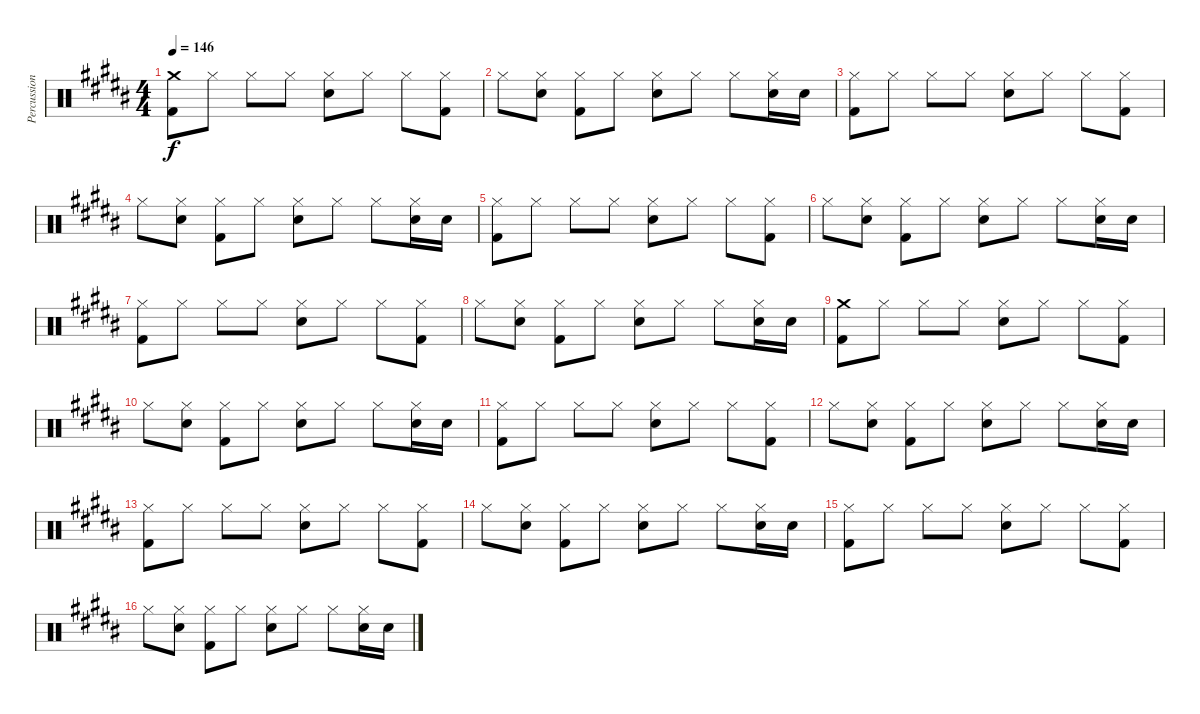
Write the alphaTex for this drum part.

\track ("Percussion" "Percussion") {instrument percussion}
\staff {score}
\articulation defaults
\ts (4 4)
\tempo 146
\clef neutral
\ks b
("Crash medium (hit)" "Kick (hit) 2").8{dy f} "Hi-Hat (closed)".8 "Hi-Hat (closed)".8 "Hi-Hat (closed)".8 ("Hi-Hat (closed)" "Snare (hit) 2").8 "Hi-Hat (closed)".8 "Hi-Hat (closed)".8 ("Hi-Hat (closed)" "Kick (hit) 2").8 |
"Hi-Hat (closed)".8 ("Hi-Hat (closed)" "Snare (hit) 2").8 ("Hi-Hat (closed)" "Kick (hit) 2").8 "Hi-Hat (closed)".8 ("Hi-Hat (closed)" "Snare (hit) 2").8 "Hi-Hat (closed)".8 "Hi-Hat (closed)".8 ("Hi-Hat (closed)" "Snare (hit) 2").16 "Snare (hit) 2".16 |
("Hi-Hat (closed)" "Kick (hit) 2").8 "Hi-Hat (closed)".8 "Hi-Hat (closed)".8 "Hi-Hat (closed)".8 ("Hi-Hat (closed)" "Snare (hit) 2").8 "Hi-Hat (closed)".8 "Hi-Hat (closed)".8 ("Hi-Hat (closed)" "Kick (hit) 2").8 |
"Hi-Hat (closed)".8 ("Hi-Hat (closed)" "Snare (hit) 2").8 ("Hi-Hat (closed)" "Kick (hit) 2").8 "Hi-Hat (closed)".8 ("Hi-Hat (closed)" "Snare (hit) 2").8 "Hi-Hat (closed)".8 "Hi-Hat (closed)".8 ("Hi-Hat (closed)" "Snare (hit) 2").16 "Snare (hit) 2".16 |
("Hi-Hat (closed)" "Kick (hit) 2").8 "Hi-Hat (closed)".8 "Hi-Hat (closed)".8 "Hi-Hat (closed)".8 ("Hi-Hat (closed)" "Snare (hit) 2").8 "Hi-Hat (closed)".8 "Hi-Hat (closed)".8 ("Hi-Hat (closed)" "Kick (hit) 2").8 |
"Hi-Hat (closed)".8 ("Hi-Hat (closed)" "Snare (hit) 2").8 ("Hi-Hat (closed)" "Kick (hit) 2").8 "Hi-Hat (closed)".8 ("Hi-Hat (closed)" "Snare (hit) 2").8 "Hi-Hat (closed)".8 "Hi-Hat (closed)".8 ("Hi-Hat (closed)" "Snare (hit) 2").16 "Snare (hit) 2".16 |
("Hi-Hat (closed)" "Kick (hit) 2").8 "Hi-Hat (closed)".8 "Hi-Hat (closed)".8 "Hi-Hat (closed)".8 ("Hi-Hat (closed)" "Snare (hit) 2").8 "Hi-Hat (closed)".8 "Hi-Hat (closed)".8 ("Hi-Hat (closed)" "Kick (hit) 2").8 |
"Hi-Hat (closed)".8 ("Hi-Hat (closed)" "Snare (hit) 2").8 ("Hi-Hat (closed)" "Kick (hit) 2").8 "Hi-Hat (closed)".8 ("Hi-Hat (closed)" "Snare (hit) 2").8 "Hi-Hat (closed)".8 "Hi-Hat (closed)".8 ("Hi-Hat (closed)" "Snare (hit) 2").16 "Snare (hit) 2".16 |
("Crash medium (hit)" "Kick (hit) 2").8 "Hi-Hat (closed)".8 "Hi-Hat (closed)".8 "Hi-Hat (closed)".8 ("Hi-Hat (closed)" "Snare (hit) 2").8 "Hi-Hat (closed)".8 "Hi-Hat (closed)".8 ("Hi-Hat (closed)" "Kick (hit) 2").8 |
"Hi-Hat (closed)".8 ("Hi-Hat (closed)" "Snare (hit) 2").8 ("Hi-Hat (closed)" "Kick (hit) 2").8 "Hi-Hat (closed)".8 ("Hi-Hat (closed)" "Snare (hit) 2").8 "Hi-Hat (closed)".8 "Hi-Hat (closed)".8 ("Hi-Hat (closed)" "Snare (hit) 2").16 "Snare (hit) 2".16 |
("Hi-Hat (closed)" "Kick (hit) 2").8 "Hi-Hat (closed)".8 "Hi-Hat (closed)".8 "Hi-Hat (closed)".8 ("Hi-Hat (closed)" "Snare (hit) 2").8 "Hi-Hat (closed)".8 "Hi-Hat (closed)".8 ("Hi-Hat (closed)" "Kick (hit) 2").8 |
"Hi-Hat (closed)".8 ("Hi-Hat (closed)" "Snare (hit) 2").8 ("Hi-Hat (closed)" "Kick (hit) 2").8 "Hi-Hat (closed)".8 ("Hi-Hat (closed)" "Snare (hit) 2").8 "Hi-Hat (closed)".8 "Hi-Hat (closed)".8 ("Hi-Hat (closed)" "Snare (hit) 2").16 "Snare (hit) 2".16 |
("Hi-Hat (closed)" "Kick (hit) 2").8 "Hi-Hat (closed)".8 "Hi-Hat (closed)".8 "Hi-Hat (closed)".8 ("Hi-Hat (closed)" "Snare (hit) 2").8 "Hi-Hat (closed)".8 "Hi-Hat (closed)".8 ("Hi-Hat (closed)" "Kick (hit) 2").8 |
"Hi-Hat (closed)".8 ("Hi-Hat (closed)" "Snare (hit) 2").8 ("Hi-Hat (closed)" "Kick (hit) 2").8 "Hi-Hat (closed)".8 ("Hi-Hat (closed)" "Snare (hit) 2").8 "Hi-Hat (closed)".8 "Hi-Hat (closed)".8 ("Hi-Hat (closed)" "Snare (hit) 2").16 "Snare (hit) 2".16 |
("Hi-Hat (closed)" "Kick (hit) 2").8 "Hi-Hat (closed)".8 "Hi-Hat (closed)".8 "Hi-Hat (closed)".8 ("Hi-Hat (closed)" "Snare (hit) 2").8 "Hi-Hat (closed)".8 "Hi-Hat (closed)".8 ("Hi-Hat (closed)" "Kick (hit) 2").8 |
"Hi-Hat (closed)".8 ("Hi-Hat (closed)" "Snare (hit) 2").8 ("Hi-Hat (closed)" "Kick (hit) 2").8 "Hi-Hat (closed)".8 ("Hi-Hat (closed)" "Snare (hit) 2").8 "Hi-Hat (closed)".8 "Hi-Hat (closed)".8 ("Hi-Hat (closed)" "Snare (hit) 2").16 "Snare (hit) 2".16
